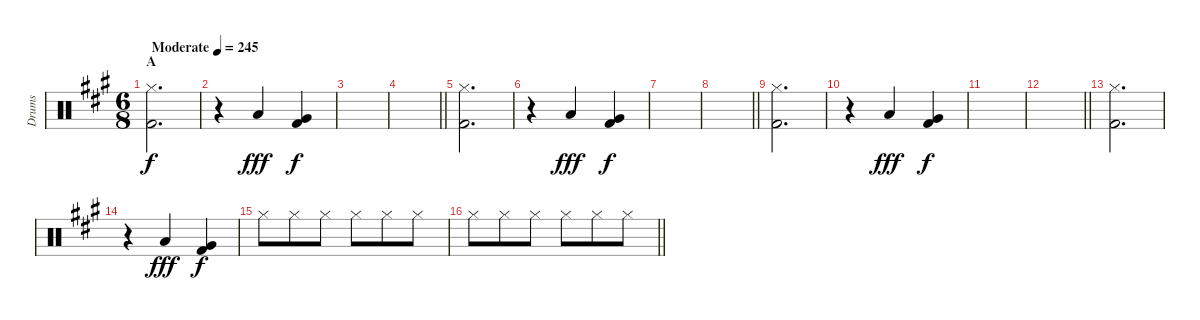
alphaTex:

\track ("Drums" "Drums") {instrument percussion}
\staff {score}
\articulation defaults
\ts (6 8)
\section ("" "A")
\tempo (245 "Moderate")
\clef neutral
\ks a
("Hi-Hat (closed)" "Kick (hit) 2").2{d dy f} |
r.4 "Low Floor Tom (hit)".4{dy fff} ("Very Low Tom (hit)" "Kick (hit) 2").4{dy f} |
|
\barLineRight lightlight
|
\section ("" "")
("Hi-Hat (closed)" "Kick (hit) 2").2{d} |
r.4 "Low Floor Tom (hit)".4{dy fff} ("Very Low Tom (hit)" "Kick (hit) 2").4{dy f} |
|
\barLineRight lightlight
|
\section ("" "")
("Hi-Hat (closed)" "Kick (hit) 2").2{d} |
r.4 "Low Floor Tom (hit)".4{dy fff} ("Very Low Tom (hit)" "Kick (hit) 2").4{dy f} |
|
\barLineRight lightlight
|
\section ("" "")
("Hi-Hat (closed)" "Kick (hit) 2").2{d} |
r.4 "Low Floor Tom (hit)".4{dy fff} ("Very Low Tom (hit)" "Kick (hit) 2").4{dy f} |
"Hi-Hat (closed)".8 "Hi-Hat (closed)".8 "Hi-Hat (closed)".8 "Hi-Hat (closed)".8 "Hi-Hat (closed)".8 "Hi-Hat (closed)".8 |
\barLineRight lightlight "Hi-Hat (closed)".8 "Hi-Hat (closed)".8 "Hi-Hat (closed)".8 "Hi-Hat (closed)".8 "Hi-Hat (closed)".8 "Hi-Hat (closed)".8
